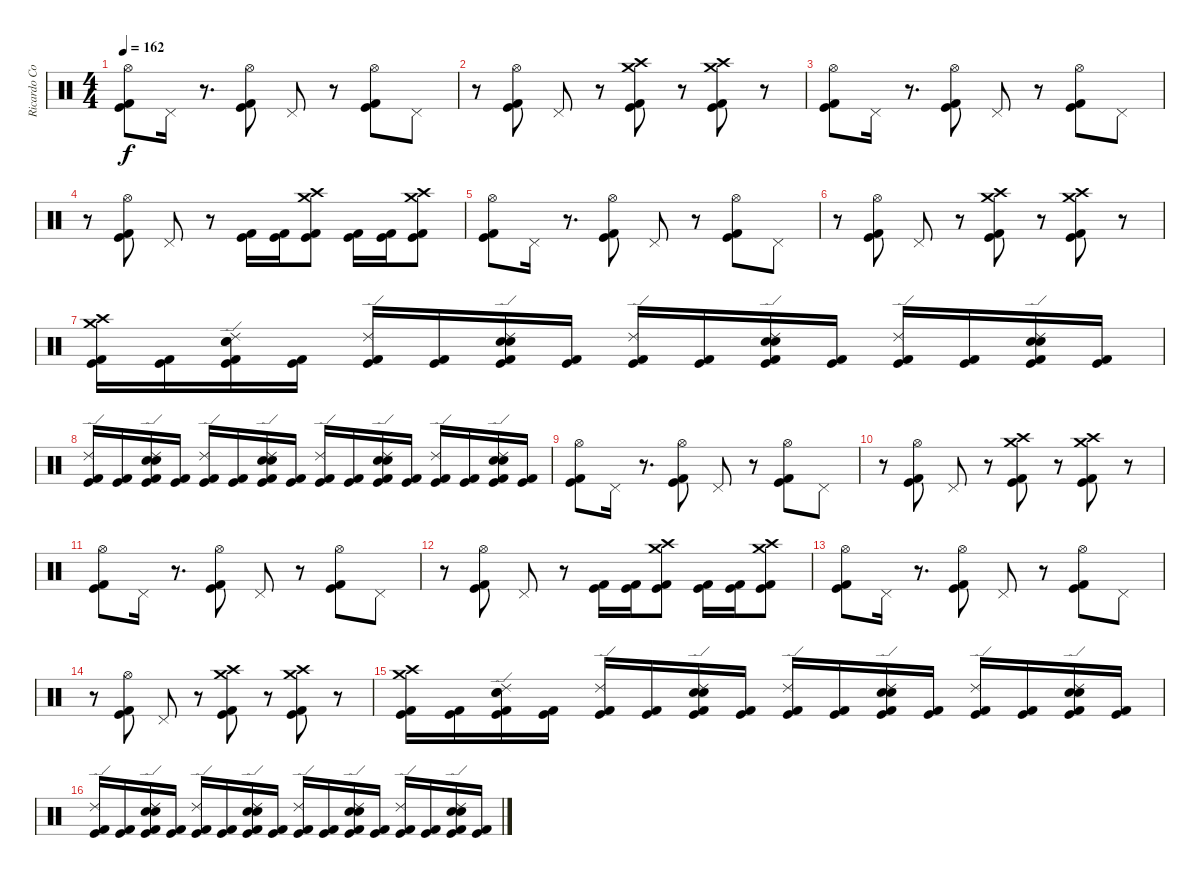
\track ("Ricardo Confessori" "Ricardo Co") {instrument percussion}
\staff {score}
\articulation defaults
\ts (4 4)
\tempo 162
\clef neutral
\ks c
("Kick (hit) 2" "Kick (hit)" "Hi-Hat (open)").8{dy f} "Pedal Hi-Hat (hit)".16 r.8{d} ("Kick (hit) 2" "Kick (hit)" "Hi-Hat (open)").8 "Pedal Hi-Hat (hit)".8 r.8 ("Kick (hit)" "Hi-Hat (open)" "Kick (hit) 2").8 "Pedal Hi-Hat (hit)".8 |
r.8 ("Hi-Hat (open)" "Kick (hit)" "Kick (hit) 2").8 "Pedal Hi-Hat (hit)".8 r.8 ("Crash high (hit)" "Crash medium (hit)" "Kick (hit)" "Kick (hit) 2").8 r.8 ("Crash high (hit)" "Crash medium (hit)" "Kick (hit) 2" "Kick (hit)").8 r.8 |
("Kick (hit) 2" "Kick (hit)" "Hi-Hat (open)").8 "Pedal Hi-Hat (hit)".16 r.8{d} ("Kick (hit) 2" "Kick (hit)" "Hi-Hat (open)").8 "Pedal Hi-Hat (hit)".8 r.8 ("Kick (hit)" "Hi-Hat (open)" "Kick (hit) 2").8 "Pedal Hi-Hat (hit)".8 |
r.8 ("Hi-Hat (open)" "Kick (hit)" "Kick (hit) 2").8 "Pedal Hi-Hat (hit)".8 r.8 ("Kick (hit) 2" "Kick (hit)").16 ("Kick (hit) 2" "Kick (hit)").16 ("Crash medium (hit)" "Crash high (hit)" "Kick (hit) 2" "Kick (hit)").8 ("Kick (hit) 2" "Kick (hit)").16 ("Kick (hit) 2" "Kick (hit)").16 ("Crash medium (hit)" "Crash high (hit)" "Kick (hit)" "Kick (hit) 2").8 |
("Kick (hit) 2" "Kick (hit)" "Hi-Hat (open)").8 "Pedal Hi-Hat (hit)".16 r.8{d} ("Kick (hit) 2" "Kick (hit)" "Hi-Hat (open)").8 "Pedal Hi-Hat (hit)".8 r.8 ("Kick (hit)" "Hi-Hat (open)" "Kick (hit) 2").8 "Pedal Hi-Hat (hit)".8 |
r.8 ("Hi-Hat (open)" "Kick (hit)" "Kick (hit) 2").8 "Pedal Hi-Hat (hit)".8 r.8 ("Crash high (hit)" "Crash medium (hit)" "Kick (hit)" "Kick (hit) 2").8 r.8 ("Crash high (hit)" "Crash medium (hit)" "Kick (hit) 2" "Kick (hit)").8 r.8 |
("Crash high (hit)" "Crash medium (hit)" "Kick (hit) 2" "Kick (hit)").16 ("Kick (hit) 2" "Kick (hit)").16 ("Ride (edge) 2" "Electric Snare (hit)" "Snare (hit) 2" "Kick (hit) 2" "Kick (hit)").16 ("Kick (hit) 2" "Kick (hit)").16 ("Ride (edge) 2" "Kick (hit) 2" "Kick (hit)").16 ("Kick (hit) 2" "Kick (hit)").16 ("Ride (edge) 2" "Electric Snare (hit)" "Snare (hit) 2" "Kick (hit) 2" "Kick (hit)").16 ("Kick (hit) 2" "Kick (hit)").16 ("Ride (edge) 2" "Kick (hit) 2" "Kick (hit)").16 ("Kick (hit) 2" "Kick (hit)").16 ("Ride (edge) 2" "Electric Snare (hit)" "Snare (hit) 2" "Kick (hit) 2" "Kick (hit)").16 ("Kick (hit) 2" "Kick (hit)").16 ("Ride (edge) 2" "Kick (hit) 2" "Kick (hit)").16 ("Kick (hit) 2" "Kick (hit)").16 ("Ride (edge) 2" "Electric Snare (hit)" "Snare (hit) 2" "Kick (hit) 2" "Kick (hit)").16 ("Kick (hit) 2" "Kick (hit)").16 |
("Ride (edge) 2" "Kick (hit) 2" "Kick (hit)").16 ("Kick (hit) 2" "Kick (hit)").16 ("Ride (edge) 2" "Electric Snare (hit)" "Snare (hit) 2" "Kick (hit) 2" "Kick (hit)").16 ("Kick (hit) 2" "Kick (hit)").16 ("Ride (edge) 2" "Kick (hit) 2" "Kick (hit)").16 ("Kick (hit) 2" "Kick (hit)").16 ("Ride (edge) 2" "Electric Snare (hit)" "Snare (hit) 2" "Kick (hit) 2" "Kick (hit)").16 ("Kick (hit) 2" "Kick (hit)").16 ("Ride (edge) 2" "Kick (hit) 2" "Kick (hit)").16 ("Kick (hit) 2" "Kick (hit)").16 ("Ride (edge) 2" "Electric Snare (hit)" "Snare (hit) 2" "Kick (hit) 2" "Kick (hit)").16 ("Kick (hit) 2" "Kick (hit)").16 ("Ride (edge) 2" "Kick (hit) 2" "Kick (hit)").16 ("Kick (hit) 2" "Kick (hit)").16 ("Ride (edge) 2" "Electric Snare (hit)" "Snare (hit) 2" "Kick (hit) 2" "Kick (hit)").16 ("Kick (hit) 2" "Kick (hit)").16 |
("Kick (hit) 2" "Kick (hit)" "Hi-Hat (open)").8 "Pedal Hi-Hat (hit)".16 r.8{d} ("Kick (hit) 2" "Kick (hit)" "Hi-Hat (open)").8 "Pedal Hi-Hat (hit)".8 r.8 ("Kick (hit)" "Hi-Hat (open)" "Kick (hit) 2").8 "Pedal Hi-Hat (hit)".8 |
r.8 ("Hi-Hat (open)" "Kick (hit)" "Kick (hit) 2").8 "Pedal Hi-Hat (hit)".8 r.8 ("Crash high (hit)" "Crash medium (hit)" "Kick (hit)" "Kick (hit) 2").8 r.8 ("Crash high (hit)" "Crash medium (hit)" "Kick (hit) 2" "Kick (hit)").8 r.8 |
("Kick (hit) 2" "Kick (hit)" "Hi-Hat (open)").8 "Pedal Hi-Hat (hit)".16 r.8{d} ("Kick (hit) 2" "Kick (hit)" "Hi-Hat (open)").8 "Pedal Hi-Hat (hit)".8 r.8 ("Kick (hit)" "Hi-Hat (open)" "Kick (hit) 2").8 "Pedal Hi-Hat (hit)".8 |
r.8 ("Hi-Hat (open)" "Kick (hit)" "Kick (hit) 2").8 "Pedal Hi-Hat (hit)".8 r.8 ("Kick (hit) 2" "Kick (hit)").16 ("Kick (hit) 2" "Kick (hit)").16 ("Crash medium (hit)" "Crash high (hit)" "Kick (hit) 2" "Kick (hit)").8 ("Kick (hit) 2" "Kick (hit)").16 ("Kick (hit) 2" "Kick (hit)").16 ("Crash medium (hit)" "Crash high (hit)" "Kick (hit)" "Kick (hit) 2").8 |
("Kick (hit) 2" "Kick (hit)" "Hi-Hat (open)").8 "Pedal Hi-Hat (hit)".16 r.8{d} ("Kick (hit) 2" "Kick (hit)" "Hi-Hat (open)").8 "Pedal Hi-Hat (hit)".8 r.8 ("Kick (hit)" "Hi-Hat (open)" "Kick (hit) 2").8 "Pedal Hi-Hat (hit)".8 |
r.8 ("Hi-Hat (open)" "Kick (hit)" "Kick (hit) 2").8 "Pedal Hi-Hat (hit)".8 r.8 ("Crash high (hit)" "Crash medium (hit)" "Kick (hit)" "Kick (hit) 2").8 r.8 ("Crash high (hit)" "Crash medium (hit)" "Kick (hit) 2" "Kick (hit)").8 r.8 |
("Crash high (hit)" "Crash medium (hit)" "Kick (hit) 2" "Kick (hit)").16 ("Kick (hit) 2" "Kick (hit)").16 ("Ride (edge) 2" "Electric Snare (hit)" "Snare (hit) 2" "Kick (hit) 2" "Kick (hit)").16 ("Kick (hit) 2" "Kick (hit)").16 ("Ride (edge) 2" "Kick (hit) 2" "Kick (hit)").16 ("Kick (hit) 2" "Kick (hit)").16 ("Ride (edge) 2" "Electric Snare (hit)" "Snare (hit) 2" "Kick (hit) 2" "Kick (hit)").16 ("Kick (hit) 2" "Kick (hit)").16 ("Ride (edge) 2" "Kick (hit) 2" "Kick (hit)").16 ("Kick (hit) 2" "Kick (hit)").16 ("Ride (edge) 2" "Electric Snare (hit)" "Snare (hit) 2" "Kick (hit) 2" "Kick (hit)").16 ("Kick (hit) 2" "Kick (hit)").16 ("Ride (edge) 2" "Kick (hit) 2" "Kick (hit)").16 ("Kick (hit) 2" "Kick (hit)").16 ("Ride (edge) 2" "Electric Snare (hit)" "Snare (hit) 2" "Kick (hit) 2" "Kick (hit)").16 ("Kick (hit) 2" "Kick (hit)").16 |
("Ride (edge) 2" "Kick (hit) 2" "Kick (hit)").16 ("Kick (hit) 2" "Kick (hit)").16 ("Ride (edge) 2" "Electric Snare (hit)" "Snare (hit) 2" "Kick (hit) 2" "Kick (hit)").16 ("Kick (hit) 2" "Kick (hit)").16 ("Ride (edge) 2" "Kick (hit) 2" "Kick (hit)").16 ("Kick (hit) 2" "Kick (hit)").16 ("Ride (edge) 2" "Electric Snare (hit)" "Snare (hit) 2" "Kick (hit) 2" "Kick (hit)").16 ("Kick (hit) 2" "Kick (hit)").16 ("Ride (edge) 2" "Kick (hit) 2" "Kick (hit)").16 ("Kick (hit) 2" "Kick (hit)").16 ("Ride (edge) 2" "Electric Snare (hit)" "Snare (hit) 2" "Kick (hit) 2" "Kick (hit)").16 ("Kick (hit) 2" "Kick (hit)").16 ("Ride (edge) 2" "Kick (hit) 2" "Kick (hit)").16 ("Kick (hit) 2" "Kick (hit)").16 ("Ride (edge) 2" "Electric Snare (hit)" "Snare (hit) 2" "Kick (hit) 2" "Kick (hit)").16 ("Kick (hit) 2" "Kick (hit)").16
